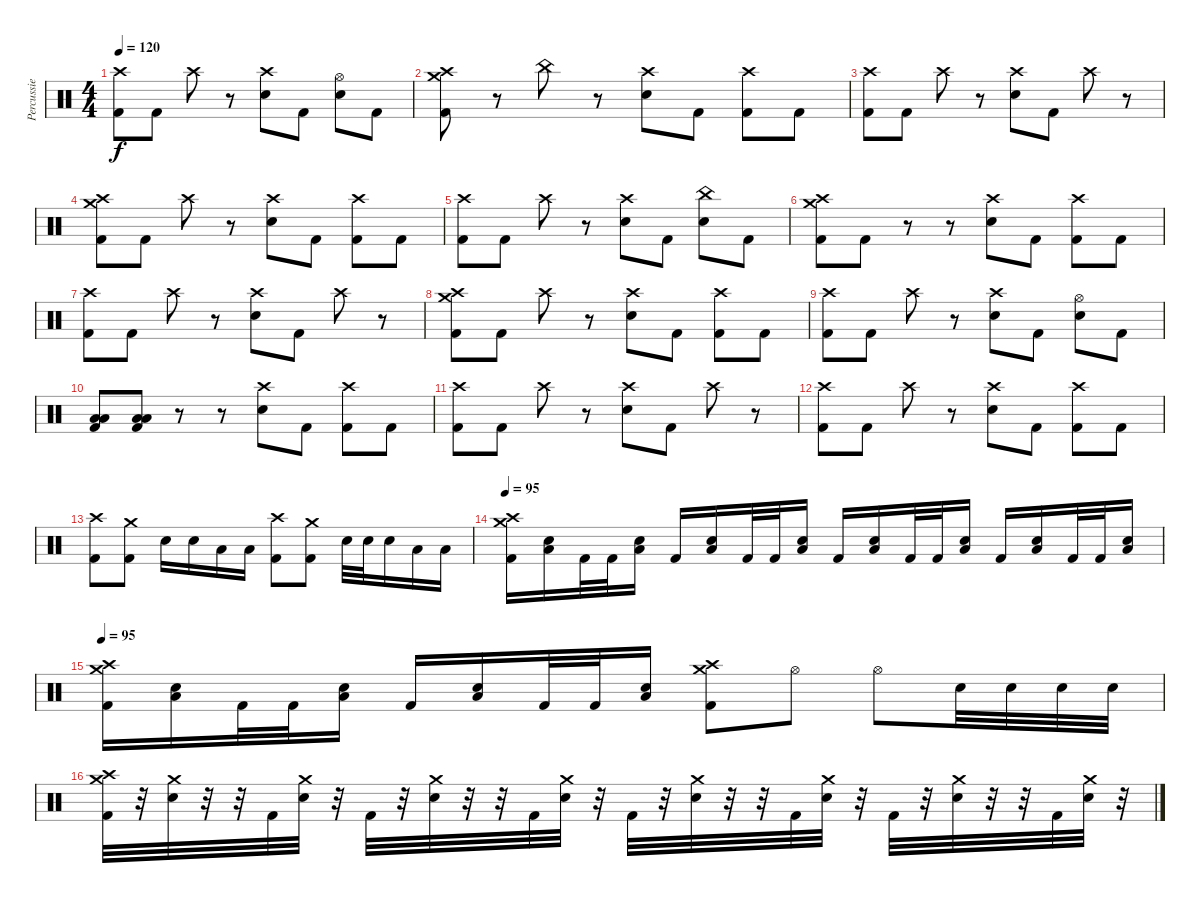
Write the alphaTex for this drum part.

\track ("Percussie" "Percussie") {instrument percussion}
\staff {score}
\articulation defaults
\ts (4 4)
\tempo 120
\clef neutral
\ks c
("Crash high (hit)" "Kick (hit) 2").8{dy f} "Kick (hit) 2".8 "Crash high (hit)".8 r.8 ("Crash high (hit)" "Electric Snare (hit)").8 "Kick (hit) 2".8 ("Hi-Hat (open)" "Electric Snare (hit)").8 "Kick (hit) 2".8 |
("Crash medium (hit)" "Crash high (hit)" "Kick (hit) 2").8 r.8 "China (hit)".8 r.8 ("Crash high (hit)" "Electric Snare (hit)").8 "Kick (hit) 2".8 ("Crash high (hit)" "Kick (hit) 2").8 "Kick (hit) 2".8 |
("Crash high (hit)" "Kick (hit) 2").8 "Kick (hit) 2".8 "Crash high (hit)".8 r.8 ("Crash high (hit)" "Electric Snare (hit)").8 "Kick (hit) 2".8 "Crash high (hit)".8 r.8 |
("Crash medium (hit)" "Crash high (hit)" "Kick (hit) 2").8 "Kick (hit) 2".8 "Crash high (hit)".8 r.8 ("Crash high (hit)" "Electric Snare (hit)").8 "Kick (hit) 2".8 ("Crash high (hit)" "Kick (hit) 2").8 "Kick (hit) 2".8 |
("Crash high (hit)" "Kick (hit) 2").8 "Kick (hit) 2".8 "Crash high (hit)".8 r.8 ("Crash high (hit)" "Electric Snare (hit)").8 "Kick (hit) 2".8 ("China (hit)" "Electric Snare (hit)").8 "Kick (hit) 2".8 |
("Crash medium (hit)" "Crash high (hit)" "Kick (hit) 2").8 "Kick (hit) 2".8 r.8 r.8 ("Crash high (hit)" "Electric Snare (hit)").8 "Kick (hit) 2".8 ("Crash high (hit)" "Kick (hit) 2").8 "Kick (hit) 2".8 |
("Crash high (hit)" "Kick (hit) 2").8 "Kick (hit) 2".8 "Crash high (hit)".8 r.8 ("Crash high (hit)" "Electric Snare (hit)").8 "Kick (hit) 2".8 "Crash high (hit)".8 r.8 |
("Crash medium (hit)" "Crash high (hit)" "Kick (hit) 2").8 "Kick (hit) 2".8 "Crash high (hit)".8 r.8 ("Crash high (hit)" "Electric Snare (hit)").8 "Kick (hit) 2".8 ("Crash high (hit)" "Kick (hit) 2").8 "Kick (hit) 2".8 |
("Crash high (hit)" "Kick (hit) 2").8 "Kick (hit) 2".8 "Crash high (hit)".8 r.8 ("Crash high (hit)" "Electric Snare (hit)").8 "Kick (hit) 2".8 ("Hi-Hat (open)" "Electric Snare (hit)").8 "Kick (hit) 2".8 |
("Low Tom (hit)" "Low Floor Tom (hit)" "Kick (hit) 2").8 ("Low Tom (hit)" "Low Floor Tom (hit)" "Kick (hit) 2").8 r.8 r.8 ("Crash high (hit)" "Electric Snare (hit)").8 "Kick (hit) 2".8 ("Crash high (hit)" "Kick (hit) 2").8 "Kick (hit) 2".8 |
("Crash high (hit)" "Kick (hit) 2").8 "Kick (hit) 2".8 "Crash high (hit)".8 r.8 ("Crash high (hit)" "Electric Snare (hit)").8 "Kick (hit) 2".8 "Crash high (hit)".8 r.8 |
("Crash high (hit)" "Kick (hit) 2").8 "Kick (hit) 2".8 "Crash high (hit)".8 r.8 ("Crash high (hit)" "Electric Snare (hit)").8 "Kick (hit) 2".8 ("Crash high (hit)" "Kick (hit) 2").8 "Kick (hit) 2".8 |
("Crash high (hit)" "Kick (hit) 2").8 ("Crash medium (hit)" "Kick (hit) 2").8 "Electric Snare (hit)".16 "Electric Snare (hit)".16 "Low Tom (hit)".16 "Low Tom (hit)".16 ("Crash high (hit)" "Kick (hit) 2").8 ("Crash medium (hit)" "Kick (hit) 2").8 "Electric Snare (hit)".32 "Electric Snare (hit)".32 "Electric Snare (hit)".16 "Low Tom (hit)".16 "Low Tom (hit)".16 |
\tempo 95
("Crash medium (hit)" "Crash high (hit)" "Kick (hit) 2").16 ("Low Floor Tom (hit)" "Electric Snare (hit)").16 "Kick (hit) 2".32 "Kick (hit) 2".32 ("Low Floor Tom (hit)" "Electric Snare (hit)").16 "Kick (hit) 2".16 ("Low Floor Tom (hit)" "Electric Snare (hit)").16 "Kick (hit) 2".32 "Kick (hit) 2".32 ("Low Floor Tom (hit)" "Electric Snare (hit)").16 "Kick (hit) 2".16 ("Low Floor Tom (hit)" "Electric Snare (hit)").16 "Kick (hit) 2".32 "Kick (hit) 2".32 ("Low Floor Tom (hit)" "Electric Snare (hit)").16 "Kick (hit) 2".16 ("Low Floor Tom (hit)" "Electric Snare (hit)").16 "Kick (hit) 2".32 "Kick (hit) 2".32 ("Low Floor Tom (hit)" "Electric Snare (hit)").16 |
\tempo 95
("Crash medium (hit)" "Crash high (hit)" "Kick (hit) 2").16 ("Low Floor Tom (hit)" "Electric Snare (hit)").16 "Kick (hit) 2".32 "Kick (hit) 2".32 ("Low Floor Tom (hit)" "Electric Snare (hit)").16 "Kick (hit) 2".16 ("Low Floor Tom (hit)" "Electric Snare (hit)").16 "Kick (hit) 2".32 "Kick (hit) 2".32 ("Low Floor Tom (hit)" "Electric Snare (hit)").16 ("Crash medium (hit)" "Crash high (hit)" "Kick (hit) 2").8 "Hi-Hat (open)".8 "Hi-Hat (open)".8 "Electric Snare (hit)".32 "Electric Snare (hit)".32 "Electric Snare (hit)".32 "Electric Snare (hit)".32 |
("Crash medium (hit)" "Crash high (hit)" "Kick (hit) 2").32 r.32 ("Crash medium (hit)" "Electric Snare (hit)").32 r.32 r.32 "Kick (hit) 2".32 ("Crash medium (hit)" "Electric Snare (hit)").32 r.32 "Kick (hit) 2".32 r.32 ("Crash medium (hit)" "Electric Snare (hit)").32 r.32 r.32 "Kick (hit) 2".32 ("Crash medium (hit)" "Electric Snare (hit)").32 r.32 "Kick (hit) 2".32 r.32 ("Crash medium (hit)" "Electric Snare (hit)").32 r.32 r.32 "Kick (hit) 2".32 ("Crash medium (hit)" "Electric Snare (hit)").32 r.32 "Kick (hit) 2".32 r.32 ("Crash medium (hit)" "Electric Snare (hit)").32 r.32 r.32 "Kick (hit) 2".32 ("Crash medium (hit)" "Electric Snare (hit)").32 r.32
